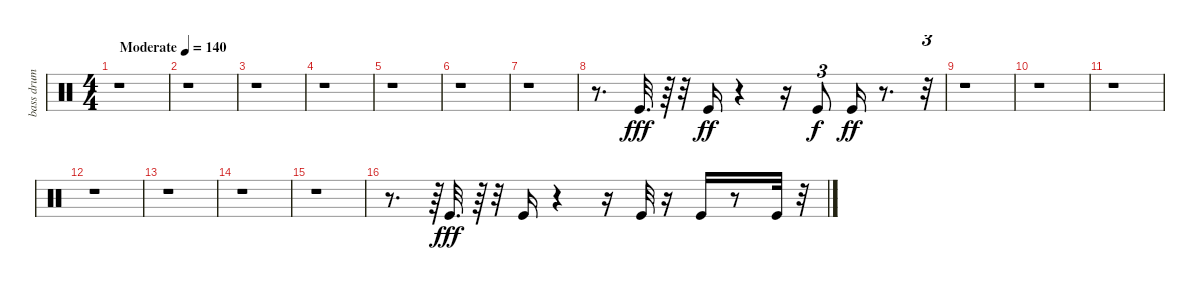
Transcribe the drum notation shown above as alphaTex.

\track ("bass drum" "bass drum") {instrument percussion}
\staff {score}
\articulation defaults
\ts (4 4)
\tempo (140 "Moderate")
\clef neutral
\ks c
r.1{dy fff} |
r.1 |
r.1 |
r.1 |
r.1 |
r.1 |
r.1 |
r.8{d} "Kick (hit)".32{d} r.64 r.32 "Kick (hit)".16{dy ff} r.4 r.16 "Kick (hit)".8{tu (3 2) dy f} "Kick (hit)".16{dy ff} r.8{d} r.32{tu (3 2)} |
r.1 |
r.1 |
r.1 |
r.1 |
r.1 |
r.1 |
r.1 |
r.8{d} r.64{tu (3 2)} "Kick (hit)".32{d dy fff} r.64 r.32 "Kick (hit)".16 r.4 r.16 "Kick (hit)".32 r.16 "Kick (hit)".16 r.8 "Kick (hit)".32 r.32
